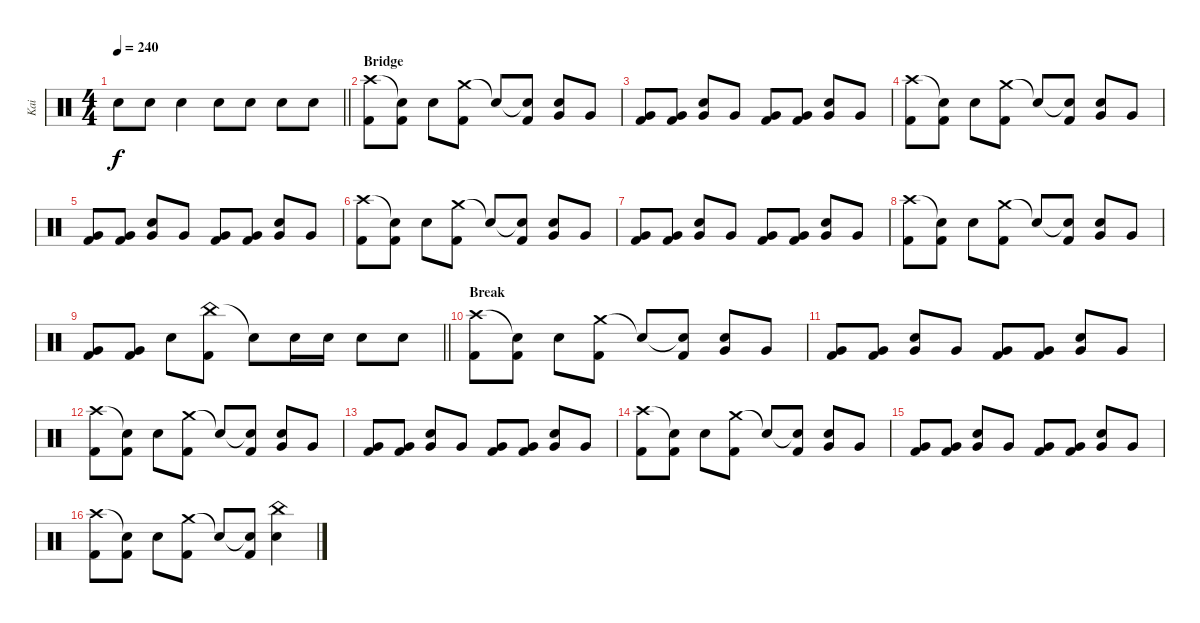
\track ("Kai" "Kai") {instrument percussion}
\staff {score}
\articulation defaults
\ts (4 4)
\tempo 240
\clef neutral
\barLineRight lightlight
\ks c "Snare (hit) 2".8{dy f} "Snare (hit) 2".8 "Snare (hit) 2".4 "Snare (hit) 2".8 "Snare (hit) 2".8 "Snare (hit) 2".8 "Snare (hit) 2".8
|
\section ("" "Bridge")
("Crash high (hit)" "Kick (hit) 2").8 ("Snare (hit)"{t} "Kick (hit) 2").8 "Snare (hit) 2".8 ("Crash medium (hit)" "Kick (hit) 2").8 "Snare (hit)"{t}.8 ("Snare (hit)"{t} "Kick (hit) 2").8 ("Snare (hit) 2" "Very Low Tom (hit)").8 "Very Low Tom (hit)".8 |
("Very Low Tom (hit)" "Kick (hit) 2").8 ("Very Low Tom (hit)" "Kick (hit) 2").8 ("Snare (hit) 2" "Very Low Tom (hit)").8 "Very Low Tom (hit)".8 ("Very Low Tom (hit)" "Kick (hit) 2").8 ("Very Low Tom (hit)" "Kick (hit) 2").8 ("Snare (hit) 2" "Very Low Tom (hit)").8 "Very Low Tom (hit)".8 |
("Crash high (hit)" "Kick (hit) 2").8 ("Snare (hit)"{t} "Kick (hit) 2").8 "Snare (hit) 2".8 ("Crash medium (hit)" "Kick (hit) 2").8 "Snare (hit)"{t}.8 ("Snare (hit)"{t} "Kick (hit) 2").8 ("Snare (hit) 2" "Very Low Tom (hit)").8 "Very Low Tom (hit)".8 |
("Very Low Tom (hit)" "Kick (hit) 2").8 ("Very Low Tom (hit)" "Kick (hit) 2").8 ("Snare (hit) 2" "Very Low Tom (hit)").8 "Very Low Tom (hit)".8 ("Very Low Tom (hit)" "Kick (hit) 2").8 ("Very Low Tom (hit)" "Kick (hit) 2").8 ("Snare (hit) 2" "Very Low Tom (hit)").8 "Very Low Tom (hit)".8 |
("Crash high (hit)" "Kick (hit) 2").8 ("Snare (hit)"{t} "Kick (hit) 2").8 "Snare (hit) 2".8 ("Crash medium (hit)" "Kick (hit) 2").8 "Snare (hit)"{t}.8 ("Snare (hit)"{t} "Kick (hit) 2").8 ("Snare (hit) 2" "Very Low Tom (hit)").8 "Very Low Tom (hit)".8 |
("Very Low Tom (hit)" "Kick (hit) 2").8 ("Very Low Tom (hit)" "Kick (hit) 2").8 ("Snare (hit) 2" "Very Low Tom (hit)").8 "Very Low Tom (hit)".8 ("Very Low Tom (hit)" "Kick (hit) 2").8 ("Very Low Tom (hit)" "Kick (hit) 2").8 ("Snare (hit) 2" "Very Low Tom (hit)").8 "Very Low Tom (hit)".8 |
("Crash high (hit)" "Kick (hit) 2").8 ("Snare (hit)"{t} "Kick (hit) 2").8 "Snare (hit) 2".8 ("Crash medium (hit)" "Kick (hit) 2").8 "Snare (hit)"{t}.8 ("Snare (hit)"{t} "Kick (hit) 2").8 ("Snare (hit) 2" "Very Low Tom (hit)").8 "Very Low Tom (hit)".8 |
\barLineRight lightlight
("Very Low Tom (hit)" "Kick (hit) 2").8 ("Very Low Tom (hit)" "Kick (hit) 2").8 "Snare (hit) 2".8 ("China (hit)" "Kick (hit) 2").8 "Snare (hit)"{t}.8 "Snare (hit) 2".16 "Snare (hit) 2".16 "Snare (hit) 2".8 "Snare (hit) 2".8 |
\section ("" "Break")
("Crash high (hit)" "Kick (hit) 2").8 ("Snare (hit)"{t} "Kick (hit) 2").8 "Snare (hit) 2".8 ("Crash medium (hit)" "Kick (hit) 2").8 "Snare (hit)"{t}.8 ("Snare (hit)"{t} "Kick (hit) 2").8 ("Snare (hit) 2" "Very Low Tom (hit)").8 "Very Low Tom (hit)".8 |
("Very Low Tom (hit)" "Kick (hit) 2").8 ("Very Low Tom (hit)" "Kick (hit) 2").8 ("Snare (hit) 2" "Very Low Tom (hit)").8 "Very Low Tom (hit)".8 ("Very Low Tom (hit)" "Kick (hit) 2").8 ("Very Low Tom (hit)" "Kick (hit) 2").8 ("Snare (hit) 2" "Very Low Tom (hit)").8 "Very Low Tom (hit)".8 |
("Crash high (hit)" "Kick (hit) 2").8 ("Snare (hit)"{t} "Kick (hit) 2").8 "Snare (hit) 2".8 ("Crash medium (hit)" "Kick (hit) 2").8 "Snare (hit)"{t}.8 ("Snare (hit)"{t} "Kick (hit) 2").8 ("Snare (hit) 2" "Very Low Tom (hit)").8 "Very Low Tom (hit)".8 |
("Very Low Tom (hit)" "Kick (hit) 2").8 ("Very Low Tom (hit)" "Kick (hit) 2").8 ("Snare (hit) 2" "Very Low Tom (hit)").8 "Very Low Tom (hit)".8 ("Very Low Tom (hit)" "Kick (hit) 2").8 ("Very Low Tom (hit)" "Kick (hit) 2").8 ("Snare (hit) 2" "Very Low Tom (hit)").8 "Very Low Tom (hit)".8 |
("Crash high (hit)" "Kick (hit) 2").8 ("Snare (hit)"{t} "Kick (hit) 2").8 "Snare (hit) 2".8 ("Crash medium (hit)" "Kick (hit) 2").8 "Snare (hit)"{t}.8 ("Snare (hit)"{t} "Kick (hit) 2").8 ("Snare (hit) 2" "Very Low Tom (hit)").8 "Very Low Tom (hit)".8 |
("Very Low Tom (hit)" "Kick (hit) 2").8 ("Very Low Tom (hit)" "Kick (hit) 2").8 ("Snare (hit) 2" "Very Low Tom (hit)").8 "Very Low Tom (hit)".8 ("Very Low Tom (hit)" "Kick (hit) 2").8 ("Very Low Tom (hit)" "Kick (hit) 2").8 ("Snare (hit) 2" "Very Low Tom (hit)").8 "Very Low Tom (hit)".8 |
("Crash high (hit)" "Kick (hit) 2").8 ("Snare (hit)"{t} "Kick (hit) 2").8 "Snare (hit) 2".8 ("Crash medium (hit)" "Kick (hit) 2").8 "Snare (hit)"{t}.8 ("Snare (hit)"{t} "Kick (hit) 2").8 ("China (hit)" "Snare (hit) 2").4
